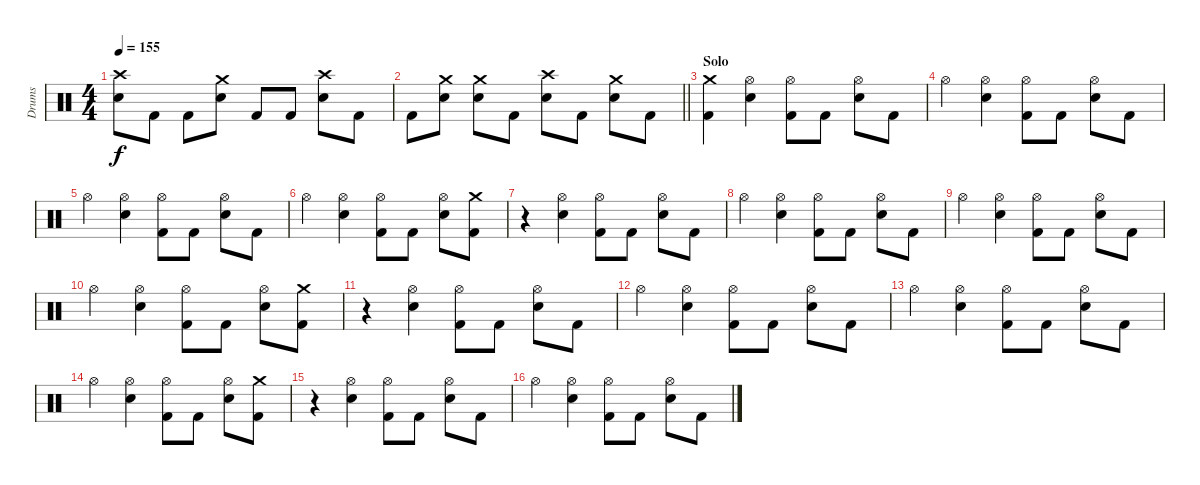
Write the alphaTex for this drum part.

\track ("Drums" "Drums") {instrument percussion}
\staff {score}
\articulation defaults
\ts (4 4)
\tempo 155
\clef neutral
\ks c
("Crash high (hit)" "Electric Snare (hit)").8{dy f} "Kick (hit) 2".8 "Kick (hit) 2".8 ("Crash medium (hit)" "Electric Snare (hit)").8 "Kick (hit) 2".8 "Kick (hit) 2".8 ("Crash high (hit)" "Electric Snare (hit)").8 "Kick (hit) 2".8 |
\barLineRight lightlight "Kick (hit) 2".8
("Crash medium (hit)" "Electric Snare (hit)").8 ("Crash medium (hit)" "Electric Snare (hit)").8 "Kick (hit) 2".8 ("Crash high (hit)" "Electric Snare (hit)").8 "Kick (hit) 2".8 ("Crash medium (hit)" "Electric Snare (hit)").8 "Kick (hit) 2".8 |
\section ("" "Solo")
("Crash medium (hit)" "Kick (hit) 2").4 ("Hi-Hat (open)" "Electric Snare (hit)").4 ("Hi-Hat (open)" "Kick (hit) 2").8 "Kick (hit) 2".8 ("Hi-Hat (open)" "Electric Snare (hit)").8 "Kick (hit) 2".8 |
"Hi-Hat (open)".4 ("Hi-Hat (open)" "Electric Snare (hit)").4 ("Hi-Hat (open)" "Kick (hit) 2").8 "Kick (hit) 2".8 ("Hi-Hat (open)" "Electric Snare (hit)").8 "Kick (hit) 2".8 |
"Hi-Hat (open)".4 ("Hi-Hat (open)" "Electric Snare (hit)").4 ("Hi-Hat (open)" "Kick (hit) 2").8 "Kick (hit) 2".8 ("Hi-Hat (open)" "Electric Snare (hit)").8 "Kick (hit) 2".8 |
"Hi-Hat (open)".4 ("Hi-Hat (open)" "Electric Snare (hit)").4 ("Hi-Hat (open)" "Kick (hit) 2").8 "Kick (hit) 2".8 ("Hi-Hat (open)" "Electric Snare (hit)").8 ("Crash medium (hit)" "Kick (hit) 2").8 |
r.4 ("Hi-Hat (open)" "Electric Snare (hit)").4 ("Hi-Hat (open)" "Kick (hit) 2").8 "Kick (hit) 2".8 ("Hi-Hat (open)" "Electric Snare (hit)").8 "Kick (hit) 2".8 |
"Hi-Hat (open)".4 ("Hi-Hat (open)" "Electric Snare (hit)").4 ("Hi-Hat (open)" "Kick (hit) 2").8 "Kick (hit) 2".8 ("Hi-Hat (open)" "Electric Snare (hit)").8 "Kick (hit) 2".8 |
"Hi-Hat (open)".4 ("Hi-Hat (open)" "Electric Snare (hit)").4 ("Hi-Hat (open)" "Kick (hit) 2").8 "Kick (hit) 2".8 ("Hi-Hat (open)" "Electric Snare (hit)").8 "Kick (hit) 2".8 |
"Hi-Hat (open)".4 ("Hi-Hat (open)" "Electric Snare (hit)").4 ("Hi-Hat (open)" "Kick (hit) 2").8 "Kick (hit) 2".8 ("Hi-Hat (open)" "Electric Snare (hit)").8 ("Crash medium (hit)" "Kick (hit) 2").8 |
r.4 ("Hi-Hat (open)" "Electric Snare (hit)").4 ("Hi-Hat (open)" "Kick (hit) 2").8 "Kick (hit) 2".8 ("Hi-Hat (open)" "Electric Snare (hit)").8 "Kick (hit) 2".8 |
"Hi-Hat (open)".4 ("Hi-Hat (open)" "Electric Snare (hit)").4 ("Hi-Hat (open)" "Kick (hit) 2").8 "Kick (hit) 2".8 ("Hi-Hat (open)" "Electric Snare (hit)").8 "Kick (hit) 2".8 |
"Hi-Hat (open)".4 ("Hi-Hat (open)" "Electric Snare (hit)").4 ("Hi-Hat (open)" "Kick (hit) 2").8 "Kick (hit) 2".8 ("Hi-Hat (open)" "Electric Snare (hit)").8 "Kick (hit) 2".8 |
"Hi-Hat (open)".4 ("Hi-Hat (open)" "Electric Snare (hit)").4 ("Hi-Hat (open)" "Kick (hit) 2").8 "Kick (hit) 2".8 ("Hi-Hat (open)" "Electric Snare (hit)").8 ("Crash medium (hit)" "Kick (hit) 2").8 |
r.4 ("Hi-Hat (open)" "Electric Snare (hit)").4 ("Hi-Hat (open)" "Kick (hit) 2").8 "Kick (hit) 2".8 ("Hi-Hat (open)" "Electric Snare (hit)").8 "Kick (hit) 2".8 |
"Hi-Hat (open)".4 ("Hi-Hat (open)" "Electric Snare (hit)").4 ("Hi-Hat (open)" "Kick (hit) 2").8 "Kick (hit) 2".8 ("Hi-Hat (open)" "Electric Snare (hit)").8 "Kick (hit) 2".8
